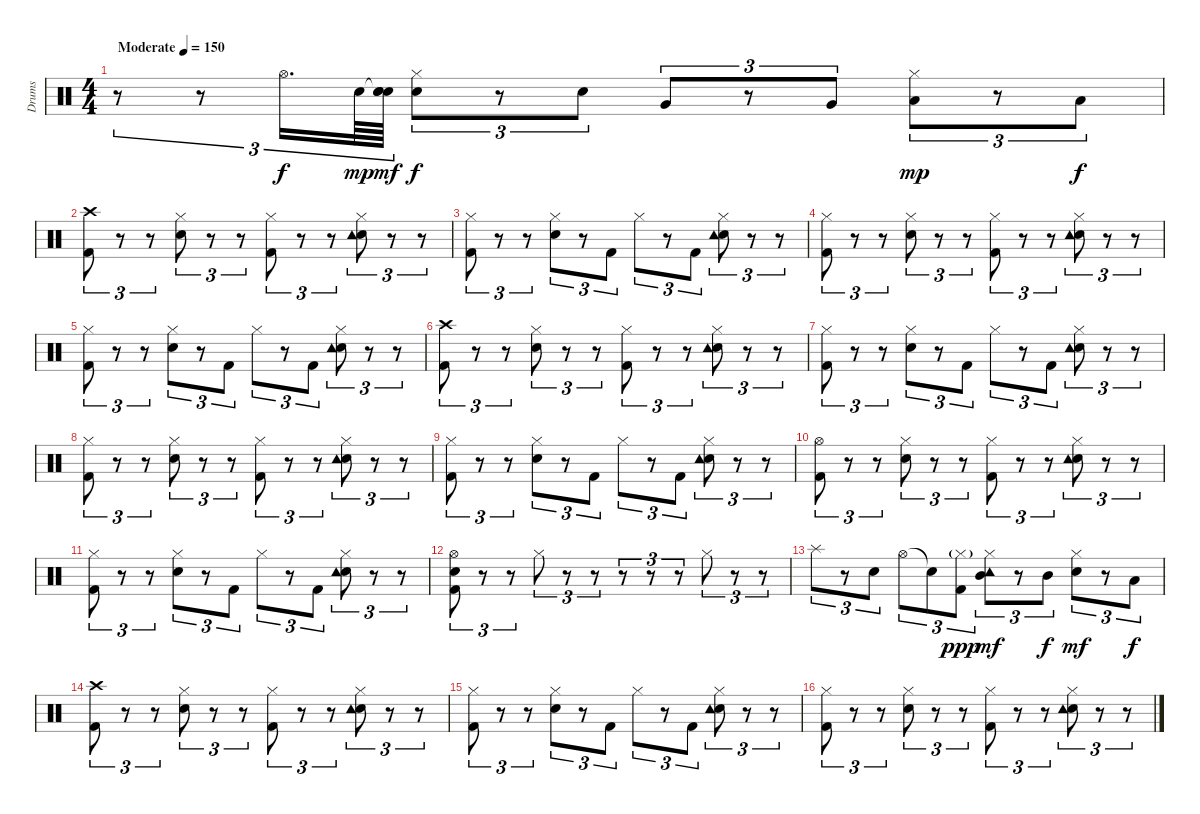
\track ("Drums" "Drums") {instrument percussion}
\staff {score}
\articulation defaults
\ts (4 4)
\tempo (150 "Moderate")
\clef neutral
\ks c
r.8{tu (3 2) dy f} r.8{tu (3 2)} "Hi-Hat (open)".16{d tu (3 2)} "Electric Snare (hit)".64{tu (3 2) dy mp} ("Snare (hit)"{t} "Snare (hit)" "Electric Snare (hit)").64{tu (3 2) dy mf} ("Hi-Hat (closed)" "Electric Snare (hit)").8{tu (3 2) dy f} r.8{tu (3 2)} "Electric Snare (hit)".8{tu (3 2)} "Very Low Tom (hit)".8{tu (3 2)} r.8{tu (3 2)} "Very Low Tom (hit)".8{tu (3 2)} ("Hi-Hat (closed)" "Low Floor Tom (hit)").8{tu (3 2) dy mp} r.8{tu (3 2)} "Low Floor Tom (hit)".8{tu (3 2) dy f} |
("Crash high (hit)" "Kick (hit) 2").8{tu (3 2)} r.8{tu (3 2)} r.8{tu (3 2)} ("Hi-Hat (closed)" "Electric Snare (hit)").8{tu (3 2)} r.8{tu (3 2)} r.8{tu (3 2)} ("Hi-Hat (closed)" "Kick (hit) 2").8{tu (3 2)} r.8{tu (3 2)} r.8{tu (3 2)} ("Hi-Hat (closed)" "Electric Snare (hit)" "Tambourine (hit)").8{tu (3 2)} r.8{tu (3 2)} r.8{tu (3 2)} |
("Hi-Hat (closed)" "Kick (hit) 2").8{tu (3 2)} r.8{tu (3 2)} r.8{tu (3 2)} ("Hi-Hat (closed)" "Electric Snare (hit)").8{tu (3 2)} r.8{tu (3 2)} "Kick (hit) 2".8{tu (3 2)} "Hi-Hat (closed)".8{tu (3 2)} r.8{tu (3 2)} "Kick (hit) 2".8{tu (3 2)} ("Hi-Hat (closed)" "Electric Snare (hit)" "Tambourine (hit)").8{tu (3 2)} r.8{tu (3 2)} r.8{tu (3 2)} |
("Hi-Hat (closed)" "Kick (hit) 2").8{tu (3 2)} r.8{tu (3 2)} r.8{tu (3 2)} ("Hi-Hat (closed)" "Electric Snare (hit)").8{tu (3 2)} r.8{tu (3 2)} r.8{tu (3 2)} ("Hi-Hat (closed)" "Kick (hit) 2").8{tu (3 2)} r.8{tu (3 2)} r.8{tu (3 2)} ("Hi-Hat (closed)" "Electric Snare (hit)" "Tambourine (hit)").8{tu (3 2)} r.8{tu (3 2)} r.8{tu (3 2)} |
("Hi-Hat (closed)" "Kick (hit) 2").8{tu (3 2)} r.8{tu (3 2)} r.8{tu (3 2)} ("Hi-Hat (closed)" "Electric Snare (hit)").8{tu (3 2)} r.8{tu (3 2)} "Kick (hit) 2".8{tu (3 2)} "Hi-Hat (closed)".8{tu (3 2)} r.8{tu (3 2)} "Kick (hit) 2".8{tu (3 2)} ("Hi-Hat (closed)" "Electric Snare (hit)" "Tambourine (hit)").8{tu (3 2)} r.8{tu (3 2)} r.8{tu (3 2)} |
("Crash high (hit)" "Kick (hit) 2").8{tu (3 2)} r.8{tu (3 2)} r.8{tu (3 2)} ("Hi-Hat (closed)" "Electric Snare (hit)").8{tu (3 2)} r.8{tu (3 2)} r.8{tu (3 2)} ("Hi-Hat (closed)" "Kick (hit) 2").8{tu (3 2)} r.8{tu (3 2)} r.8{tu (3 2)} ("Hi-Hat (closed)" "Electric Snare (hit)" "Tambourine (hit)").8{tu (3 2)} r.8{tu (3 2)} r.8{tu (3 2)} |
("Hi-Hat (closed)" "Kick (hit) 2").8{tu (3 2)} r.8{tu (3 2)} r.8{tu (3 2)} ("Hi-Hat (closed)" "Electric Snare (hit)").8{tu (3 2)} r.8{tu (3 2)} "Kick (hit) 2".8{tu (3 2)} "Hi-Hat (closed)".8{tu (3 2)} r.8{tu (3 2)} "Kick (hit) 2".8{tu (3 2)} ("Hi-Hat (closed)" "Electric Snare (hit)" "Tambourine (hit)").8{tu (3 2)} r.8{tu (3 2)} r.8{tu (3 2)} |
("Hi-Hat (closed)" "Kick (hit) 2").8{tu (3 2)} r.8{tu (3 2)} r.8{tu (3 2)} ("Hi-Hat (closed)" "Electric Snare (hit)").8{tu (3 2)} r.8{tu (3 2)} r.8{tu (3 2)} ("Hi-Hat (closed)" "Kick (hit) 2").8{tu (3 2)} r.8{tu (3 2)} r.8{tu (3 2)} ("Hi-Hat (closed)" "Electric Snare (hit)" "Tambourine (hit)").8{tu (3 2)} r.8{tu (3 2)} r.8{tu (3 2)} |
("Hi-Hat (closed)" "Kick (hit) 2").8{tu (3 2)} r.8{tu (3 2)} r.8{tu (3 2)} ("Hi-Hat (closed)" "Electric Snare (hit)").8{tu (3 2)} r.8{tu (3 2)} "Kick (hit) 2".8{tu (3 2)} "Hi-Hat (closed)".8{tu (3 2)} r.8{tu (3 2)} "Kick (hit) 2".8{tu (3 2)} ("Hi-Hat (closed)" "Electric Snare (hit)" "Tambourine (hit)").8{tu (3 2)} r.8{tu (3 2)} r.8{tu (3 2)} |
("Hi-Hat (open)" "Kick (hit) 2").8{tu (3 2)} r.8{tu (3 2)} r.8{tu (3 2)} ("Hi-Hat (closed)" "Electric Snare (hit)").8{tu (3 2)} r.8{tu (3 2)} r.8{tu (3 2)} ("Hi-Hat (closed)" "Kick (hit) 2").8{tu (3 2)} r.8{tu (3 2)} r.8{tu (3 2)} ("Hi-Hat (closed)" "Electric Snare (hit)" "Tambourine (hit)").8{tu (3 2)} r.8{tu (3 2)} r.8{tu (3 2)} |
("Hi-Hat (closed)" "Kick (hit) 2").8{tu (3 2)} r.8{tu (3 2)} r.8{tu (3 2)} ("Hi-Hat (closed)" "Electric Snare (hit)").8{tu (3 2)} r.8{tu (3 2)} "Kick (hit) 2".8{tu (3 2)} "Hi-Hat (closed)".8{tu (3 2)} r.8{tu (3 2)} "Kick (hit) 2".8{tu (3 2)} ("Hi-Hat (closed)" "Electric Snare (hit)" "Tambourine (hit)").8{tu (3 2)} r.8{tu (3 2)} r.8{tu (3 2)} |
("Hi-Hat (open)" "Electric Snare (hit)" "Kick (hit) 2").8{tu (3 2)} r.8{tu (3 2)} r.8{tu (3 2)} "Hi-Hat (closed)".8{tu (3 2)} r.8{tu (3 2)} r.8{tu (3 2)} r.8{tu (3 2)} r.8{tu (3 2)} r.8{tu (3 2)} "Hi-Hat (closed)".8{tu (3 2)} r.8{tu (3 2)} r.8{tu (3 2)} |
"Splash (hit)".8{tu (3 2)} r.8{tu (3 2)} "Electric Snare (hit)".8{tu (3 2)} "Hi-Hat (open)".8{tu (3 2)} "Snare (hit)"{t}.8{tu (3 2)} ("Hi-Hat (closed)"{g} "Kick (hit) 2").8{tu (3 2) dy ppp} ("Hi-Hat (closed)" "Mid Tom (hit)" "Tambourine (hit)").8{tu (3 2) dy mf} r.8{tu (3 2)} "Mid Tom (hit)".8{tu (3 2) dy f} ("Hi-Hat (closed)" "Electric Snare (hit)").8{tu (3 2) dy mf} r.8{tu (3 2)} "Low Tom (hit)".8{tu (3 2) dy f} |
("Crash high (hit)" "Kick (hit) 2").8{tu (3 2)} r.8{tu (3 2)} r.8{tu (3 2)} ("Hi-Hat (closed)" "Electric Snare (hit)").8{tu (3 2)} r.8{tu (3 2)} r.8{tu (3 2)} ("Hi-Hat (closed)" "Kick (hit) 2").8{tu (3 2)} r.8{tu (3 2)} r.8{tu (3 2)} ("Hi-Hat (closed)" "Electric Snare (hit)" "Tambourine (hit)").8{tu (3 2)} r.8{tu (3 2)} r.8{tu (3 2)} |
("Hi-Hat (closed)" "Kick (hit) 2").8{tu (3 2)} r.8{tu (3 2)} r.8{tu (3 2)} ("Hi-Hat (closed)" "Electric Snare (hit)").8{tu (3 2)} r.8{tu (3 2)} "Kick (hit) 2".8{tu (3 2)} "Hi-Hat (closed)".8{tu (3 2)} r.8{tu (3 2)} "Kick (hit) 2".8{tu (3 2)} ("Hi-Hat (closed)" "Electric Snare (hit)" "Tambourine (hit)").8{tu (3 2)} r.8{tu (3 2)} r.8{tu (3 2)} |
("Hi-Hat (closed)" "Kick (hit) 2").8{tu (3 2)} r.8{tu (3 2)} r.8{tu (3 2)} ("Hi-Hat (closed)" "Electric Snare (hit)").8{tu (3 2)} r.8{tu (3 2)} r.8{tu (3 2)} ("Hi-Hat (closed)" "Kick (hit) 2").8{tu (3 2)} r.8{tu (3 2)} r.8{tu (3 2)} ("Hi-Hat (closed)" "Electric Snare (hit)" "Tambourine (hit)").8{tu (3 2)} r.8{tu (3 2)} r.8{tu (3 2)}
